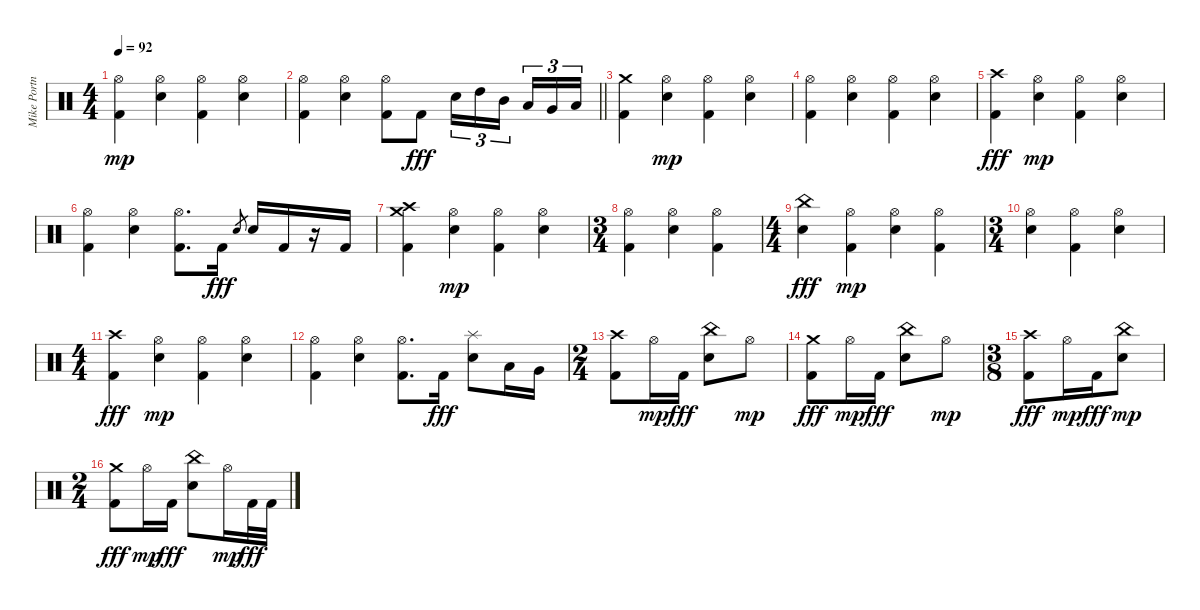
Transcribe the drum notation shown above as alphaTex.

\track ("Mike Portnoy" "Mike Portn") {instrument percussion}
\staff {score}
\articulation defaults
\ts (4 4)
\tempo 92
\clef neutral
\ks c
("Kick (hit) 2" "Hi-Hat (open)").4{dy mp} ("Electric Snare (hit)" "Hi-Hat (open)").4 ("Kick (hit) 2" "Hi-Hat (open)").4 ("Electric Snare (hit)" "Hi-Hat (open)").4 |
\barLineRight lightlight
("Kick (hit) 2" "Hi-Hat (open)").4 ("Electric Snare (hit)" "Hi-Hat (open)").4 ("Kick (hit) 2" "Hi-Hat (open)").8 "Kick (hit) 2".8{dy fff} "Electric Snare (hit)".16{tu (3 2)} "High Tom (hit)".16{tu (3 2)} "Mid Tom (hit)".16{tu (3 2) beam splitsecondary} "Low Tom (hit)".16{tu (3 2)} "Very Low Tom (hit)".16{tu (3 2)} "Low Floor Tom (hit)".16{tu (3 2)} |
("Kick (hit) 2" "Crash medium (hit)").4 ("Electric Snare (hit)" "Hi-Hat (open)").4{dy mp} ("Kick (hit) 2" "Hi-Hat (open)").4 ("Electric Snare (hit)" "Hi-Hat (open)").4 |
("Kick (hit) 2" "Hi-Hat (open)").4 ("Electric Snare (hit)" "Hi-Hat (open)").4 ("Kick (hit) 2" "Hi-Hat (open)").4 ("Electric Snare (hit)" "Hi-Hat (open)").4 |
("Kick (hit) 2" "Crash high (hit)").4{dy fff} ("Electric Snare (hit)" "Hi-Hat (open)").4{dy mp} ("Kick (hit) 2" "Hi-Hat (open)").4 ("Electric Snare (hit)" "Hi-Hat (open)").4 |
("Kick (hit) 2" "Hi-Hat (open)").4 ("Electric Snare (hit)" "Hi-Hat (open)").4 ("Kick (hit) 2" "Hi-Hat (open)").8{d} "Kick (hit) 2".16{dy fff} "Electric Snare (hit)".8{gr} "Electric Snare (hit)".16 "Kick (hit) 2".16 r.16 "Kick (hit) 2".16 |
("Kick (hit) 2" "Crash medium (hit)" "Crash high (hit)").4 ("Electric Snare (hit)" "Hi-Hat (open)").4{dy mp} ("Kick (hit) 2" "Hi-Hat (open)").4 ("Electric Snare (hit)" "Hi-Hat (open)").4 |
\ts (3 4)
("Kick (hit) 2" "Hi-Hat (open)").4 ("Electric Snare (hit)" "Hi-Hat (open)").4 ("Kick (hit) 2" "Hi-Hat (open)").4 |
\ts (4 4)
("Electric Snare (hit)" "China (hit)").4{dy fff} ("Kick (hit) 2" "Hi-Hat (open)").4{dy mp} ("Electric Snare (hit)" "Hi-Hat (open)").4 ("Kick (hit) 2" "Hi-Hat (open)").4 |
\ts (3 4)
("Electric Snare (hit)" "Hi-Hat (open)").4 ("Kick (hit) 2" "Hi-Hat (open)").4 ("Electric Snare (hit)" "Hi-Hat (open)").4 |
\ts (4 4)
("Kick (hit) 2" "Crash high (hit)").4{dy fff} ("Electric Snare (hit)" "Hi-Hat (open)").4{dy mp} ("Kick (hit) 2" "Hi-Hat (open)").4 ("Electric Snare (hit)" "Hi-Hat (open)").4 |
("Kick (hit) 2" "Hi-Hat (open)").4 ("Electric Snare (hit)" "Hi-Hat (open)").4 ("Kick (hit) 2" "Hi-Hat (open)").8{d} "Kick (hit) 2".16{dy fff} ("Electric Snare (hit)" "Splash (hit)").8 "Low Tom (hit)".16 "Very Low Tom (hit)".16 |
\ts (2 4)
("Kick (hit) 2" "Crash high (hit)").8 "Hi-Hat (open)".16{dy mp} "Kick (hit) 2".16{dy fff} ("Electric Snare (hit)" "China (hit)").8 "Hi-Hat (open)".8{dy mp} |
("Kick (hit) 2" "Crash medium (hit)").8{dy fff} "Hi-Hat (open)".16{dy mp} "Kick (hit) 2".16{dy fff} ("Electric Snare (hit)" "China (hit)").8 "Hi-Hat (open)".8{dy mp} |
\ts (3 8)
("Kick (hit) 2" "Crash high (hit)").8{dy fff} "Hi-Hat (open)".16{dy mp} "Kick (hit) 2".16{dy fff} ("Electric Snare (hit)" "China (hit)").8{dy mp} |
\ts (2 4)
("Kick (hit) 2" "Crash medium (hit)").8{dy fff} "Hi-Hat (open)".16{dy mp} "Kick (hit) 2".16{dy fff} ("Electric Snare (hit)" "China (hit)").8 "Hi-Hat (open)".16{dy mp} "Kick (hit) 2".32{dy fff} "Kick (hit) 2".32
